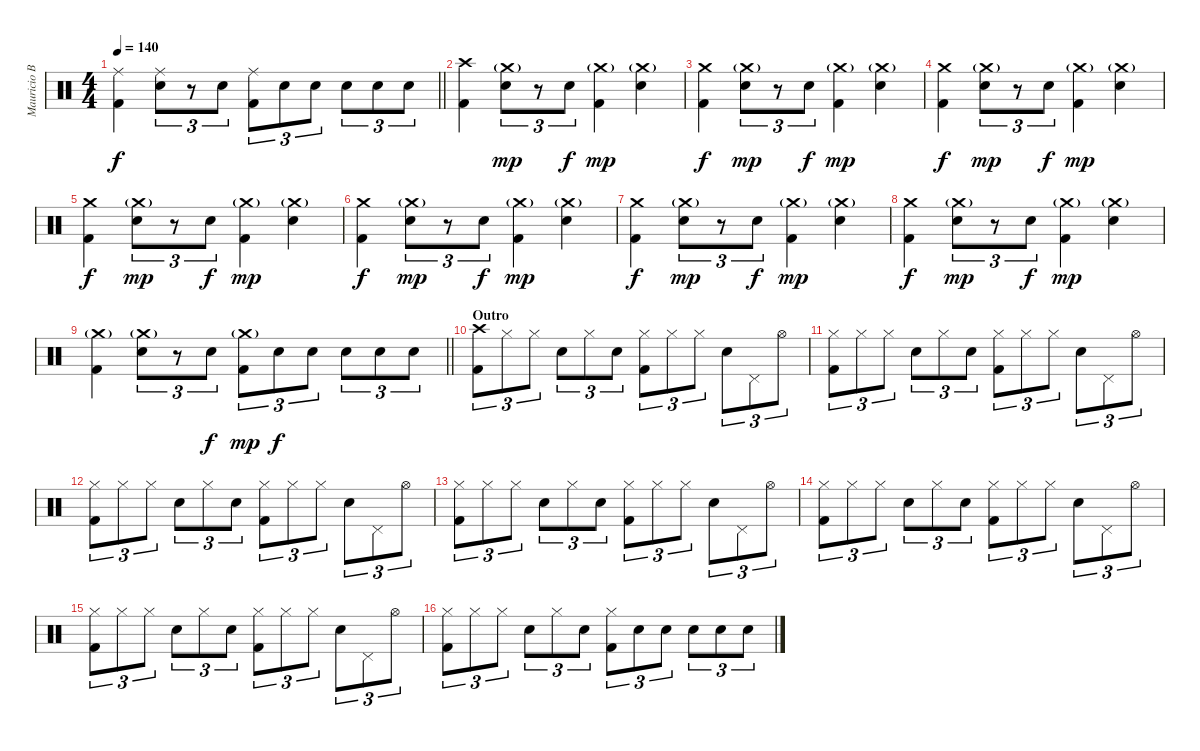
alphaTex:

\track ("Mauricio Basualto" "Mauricio B") {instrument percussion}
\staff {score}
\articulation defaults
\ts (4 4)
\tempo 140
\clef neutral
\barLineRight lightlight
\ks c
("Ride (middle)" "Kick (hit) 2").4{dy f} ("Ride (middle)" "Electric Snare (hit)").8{tu (3 2)} r.8{tu (3 2)} "Electric Snare (hit)".8{tu (3 2)} ("Ride (middle)" "Kick (hit) 2").8{tu (3 2)} "Electric Snare (hit)".8{tu (3 2)} "Electric Snare (hit)".8{tu (3 2)} "Electric Snare (hit)".8{tu (3 2)} "Electric Snare (hit)".8{tu (3 2)} "Electric Snare (hit)".8{tu (3 2)} |
("Crash high (hit)" "Kick (hit) 2").4 ("Crash medium (hit)"{g} "Electric Snare (hit)").8{tu (3 2) dy mp} r.8{tu (3 2)} "Electric Snare (hit)".8{tu (3 2) dy f} ("Crash medium (hit)"{g} "Kick (hit) 2").4{dy mp} ("Crash medium (hit)"{g} "Electric Snare (hit)").4 |
("Crash medium (hit)" "Kick (hit) 2").4{dy f} ("Crash medium (hit)"{g} "Electric Snare (hit)").8{tu (3 2) dy mp} r.8{tu (3 2)} "Electric Snare (hit)".8{tu (3 2) dy f} ("Crash medium (hit)"{g} "Kick (hit) 2").4{dy mp} ("Crash medium (hit)"{g} "Electric Snare (hit)").4 |
("Crash medium (hit)" "Kick (hit) 2").4{dy f} ("Crash medium (hit)"{g} "Electric Snare (hit)").8{tu (3 2) dy mp} r.8{tu (3 2)} "Electric Snare (hit)".8{tu (3 2) dy f} ("Crash medium (hit)"{g} "Kick (hit) 2").4{dy mp} ("Crash medium (hit)"{g} "Electric Snare (hit)").4 |
("Crash medium (hit)" "Kick (hit) 2").4{dy f} ("Crash medium (hit)"{g} "Electric Snare (hit)").8{tu (3 2) dy mp} r.8{tu (3 2)} "Electric Snare (hit)".8{tu (3 2) dy f} ("Crash medium (hit)"{g} "Kick (hit) 2").4{dy mp} ("Crash medium (hit)"{g} "Electric Snare (hit)").4 |
("Crash medium (hit)" "Kick (hit) 2").4{dy f} ("Crash medium (hit)"{g} "Electric Snare (hit)").8{tu (3 2) dy mp} r.8{tu (3 2)} "Electric Snare (hit)".8{tu (3 2) dy f} ("Crash medium (hit)"{g} "Kick (hit) 2").4{dy mp} ("Crash medium (hit)"{g} "Electric Snare (hit)").4 |
("Crash medium (hit)" "Kick (hit) 2").4{dy f} ("Crash medium (hit)"{g} "Electric Snare (hit)").8{tu (3 2) dy mp} r.8{tu (3 2)} "Electric Snare (hit)".8{tu (3 2) dy f} ("Crash medium (hit)"{g} "Kick (hit) 2").4{dy mp} ("Crash medium (hit)"{g} "Electric Snare (hit)").4 |
("Crash medium (hit)" "Kick (hit) 2").4{dy f} ("Crash medium (hit)"{g} "Electric Snare (hit)").8{tu (3 2) dy mp} r.8{tu (3 2)} "Electric Snare (hit)".8{tu (3 2) dy f} ("Crash medium (hit)"{g} "Kick (hit) 2").4{dy mp} ("Crash medium (hit)"{g} "Electric Snare (hit)").4 |
\barLineRight lightlight
("Crash medium (hit)"{g} "Kick (hit) 2").4 ("Crash medium (hit)"{g} "Electric Snare (hit)").8{tu (3 2)} r.8{tu (3 2)} "Electric Snare (hit)".8{tu (3 2) dy f} ("Crash medium (hit)"{g} "Kick (hit) 2").8{tu (3 2) dy mp} "Electric Snare (hit)".8{tu (3 2) dy f} "Electric Snare (hit)".8{tu (3 2)} "Electric Snare (hit)".8{tu (3 2)} "Electric Snare (hit)".8{tu (3 2)} "Electric Snare (hit)".8{tu (3 2)} |
\section ("" "Outro")
("Crash high (hit)" "Kick (hit) 2").8{tu (3 2)} "Hi-Hat (closed)".8{tu (3 2)} "Hi-Hat (closed)".8{tu (3 2)} "Electric Snare (hit)".8{tu (3 2)} "Hi-Hat (closed)".8{tu (3 2)} "Electric Snare (hit)".8{tu (3 2)} ("Hi-Hat (closed)" "Kick (hit) 2").8{tu (3 2)} "Hi-Hat (closed)".8{tu (3 2)} "Hi-Hat (closed)".8{tu (3 2)} "Electric Snare (hit)".8{tu (3 2)} "Pedal Hi-Hat (hit)".8{tu (3 2)} "Hi-Hat (open)".8{tu (3 2)} |
("Hi-Hat (closed)" "Kick (hit) 2").8{tu (3 2)} "Hi-Hat (closed)".8{tu (3 2)} "Hi-Hat (closed)".8{tu (3 2)} "Electric Snare (hit)".8{tu (3 2)} "Hi-Hat (closed)".8{tu (3 2)} "Electric Snare (hit)".8{tu (3 2)} ("Hi-Hat (closed)" "Kick (hit) 2").8{tu (3 2)} "Hi-Hat (closed)".8{tu (3 2)} "Hi-Hat (closed)".8{tu (3 2)} "Electric Snare (hit)".8{tu (3 2)} "Pedal Hi-Hat (hit)".8{tu (3 2)} "Hi-Hat (open)".8{tu (3 2)} |
("Hi-Hat (closed)" "Kick (hit) 2").8{tu (3 2)} "Hi-Hat (closed)".8{tu (3 2)} "Hi-Hat (closed)".8{tu (3 2)} "Electric Snare (hit)".8{tu (3 2)} "Hi-Hat (closed)".8{tu (3 2)} "Electric Snare (hit)".8{tu (3 2)} ("Hi-Hat (closed)" "Kick (hit) 2").8{tu (3 2)} "Hi-Hat (closed)".8{tu (3 2)} "Hi-Hat (closed)".8{tu (3 2)} "Electric Snare (hit)".8{tu (3 2)} "Pedal Hi-Hat (hit)".8{tu (3 2)} "Hi-Hat (open)".8{tu (3 2)} |
("Hi-Hat (closed)" "Kick (hit) 2").8{tu (3 2)} "Hi-Hat (closed)".8{tu (3 2)} "Hi-Hat (closed)".8{tu (3 2)} "Electric Snare (hit)".8{tu (3 2)} "Hi-Hat (closed)".8{tu (3 2)} "Electric Snare (hit)".8{tu (3 2)} ("Hi-Hat (closed)" "Kick (hit) 2").8{tu (3 2)} "Hi-Hat (closed)".8{tu (3 2)} "Hi-Hat (closed)".8{tu (3 2)} "Electric Snare (hit)".8{tu (3 2)} "Pedal Hi-Hat (hit)".8{tu (3 2)} "Hi-Hat (open)".8{tu (3 2)} |
("Hi-Hat (closed)" "Kick (hit) 2").8{tu (3 2)} "Hi-Hat (closed)".8{tu (3 2)} "Hi-Hat (closed)".8{tu (3 2)} "Electric Snare (hit)".8{tu (3 2)} "Hi-Hat (closed)".8{tu (3 2)} "Electric Snare (hit)".8{tu (3 2)} ("Hi-Hat (closed)" "Kick (hit) 2").8{tu (3 2)} "Hi-Hat (closed)".8{tu (3 2)} "Hi-Hat (closed)".8{tu (3 2)} "Electric Snare (hit)".8{tu (3 2)} "Pedal Hi-Hat (hit)".8{tu (3 2)} "Hi-Hat (open)".8{tu (3 2)} |
("Hi-Hat (closed)" "Kick (hit) 2").8{tu (3 2)} "Hi-Hat (closed)".8{tu (3 2)} "Hi-Hat (closed)".8{tu (3 2)} "Electric Snare (hit)".8{tu (3 2)} "Hi-Hat (closed)".8{tu (3 2)} "Electric Snare (hit)".8{tu (3 2)} ("Hi-Hat (closed)" "Kick (hit) 2").8{tu (3 2)} "Hi-Hat (closed)".8{tu (3 2)} "Hi-Hat (closed)".8{tu (3 2)} "Electric Snare (hit)".8{tu (3 2)} "Pedal Hi-Hat (hit)".8{tu (3 2)} "Hi-Hat (open)".8{tu (3 2)} |
("Hi-Hat (closed)" "Kick (hit) 2").8{tu (3 2)} "Hi-Hat (closed)".8{tu (3 2)} "Hi-Hat (closed)".8{tu (3 2)} "Electric Snare (hit)".8{tu (3 2)} "Hi-Hat (closed)".8{tu (3 2)} "Electric Snare (hit)".8{tu (3 2)} ("Hi-Hat (closed)" "Kick (hit) 2").8{tu (3 2)} "Electric Snare (hit)".8{tu (3 2)} "Electric Snare (hit)".8{tu (3 2)} "Electric Snare (hit)".8{tu (3 2)} "Electric Snare (hit)".8{tu (3 2)} "Electric Snare (hit)".8{tu (3 2)}
